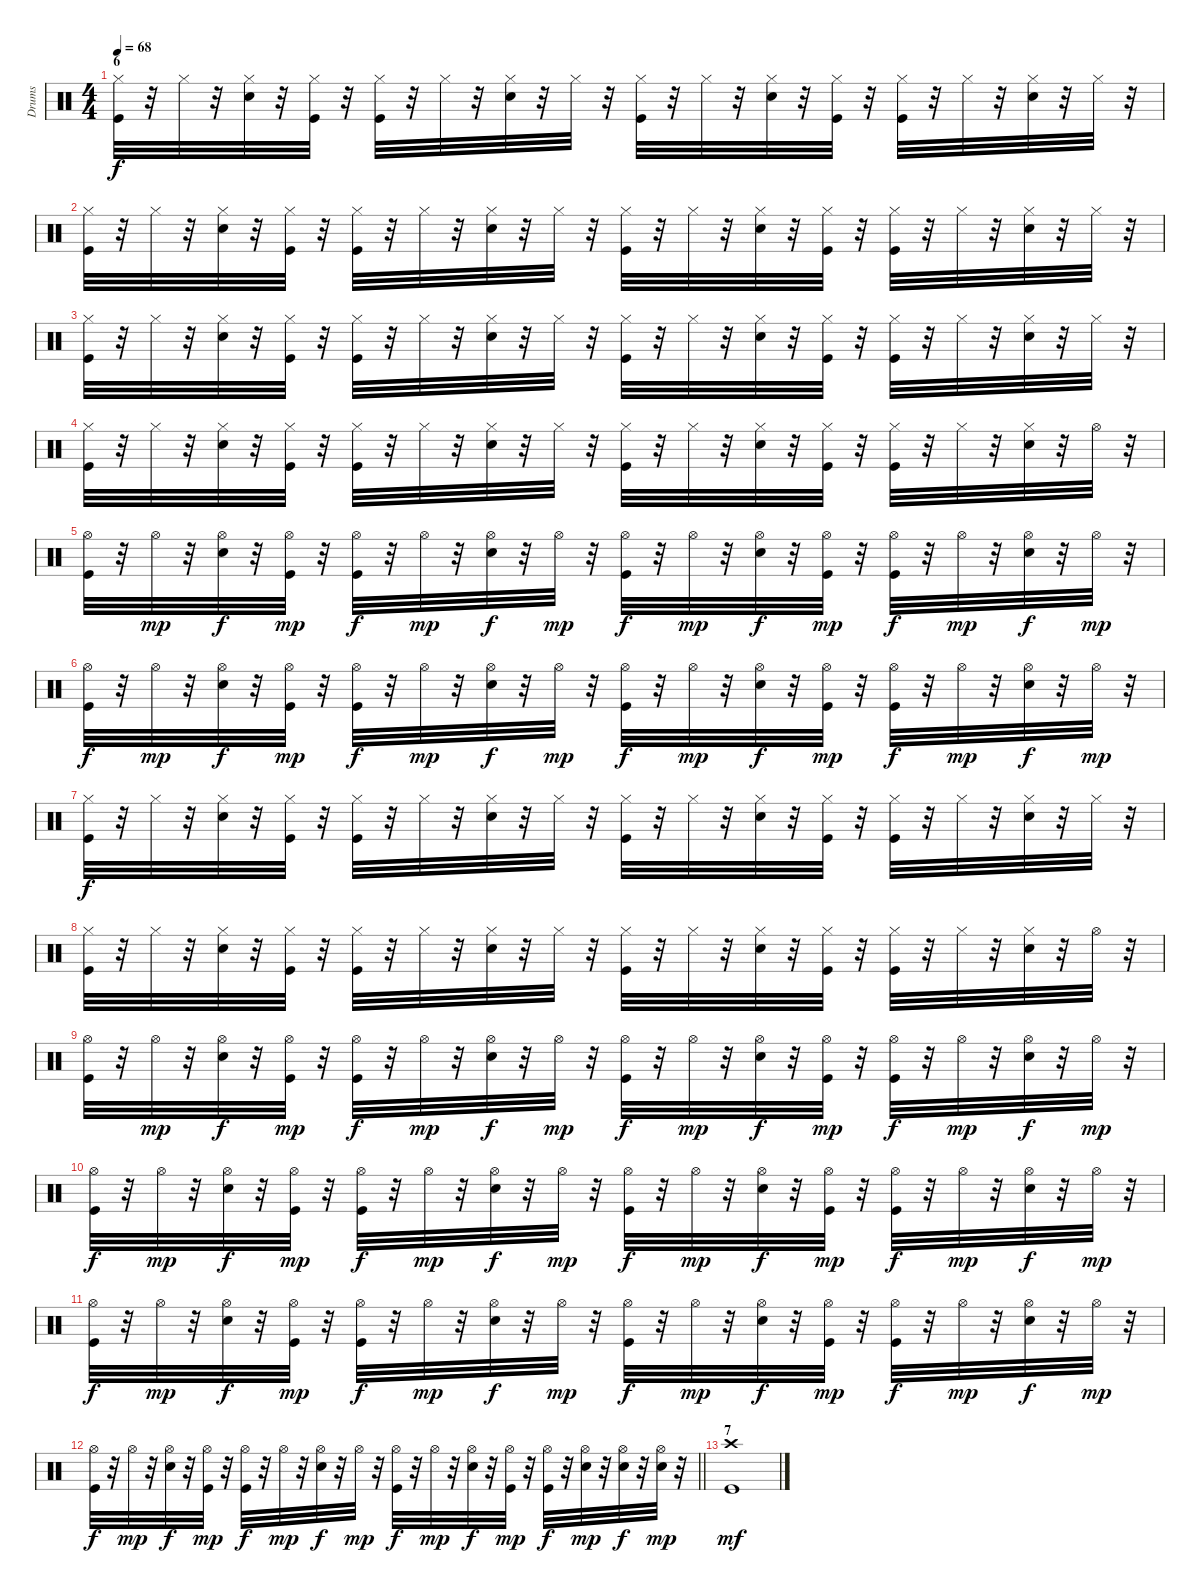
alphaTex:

\track ("Drums" "Drums") {instrument percussion}
\staff {score}
\articulation defaults
\ts (4 4)
\section ("" "6")
\tempo 68
\clef neutral
\ks c
("Hi-Hat (closed)" "Kick (hit)").32{dy f} r.32 "Hi-Hat (closed)".32 r.32 ("Hi-Hat (closed)" "Snare (hit) 2").32 r.32 ("Hi-Hat (closed)" "Kick (hit)").32 r.32 ("Hi-Hat (closed)" "Kick (hit)").32 r.32 "Hi-Hat (closed)".32 r.32 ("Hi-Hat (closed)" "Snare (hit) 2").32 r.32 "Hi-Hat (closed)".32 r.32 ("Hi-Hat (closed)" "Kick (hit)").32 r.32 "Hi-Hat (closed)".32 r.32 ("Hi-Hat (closed)" "Snare (hit) 2").32 r.32 ("Hi-Hat (closed)" "Kick (hit)").32 r.32 ("Hi-Hat (closed)" "Kick (hit)").32 r.32 "Hi-Hat (closed)".32 r.32 ("Hi-Hat (closed)" "Snare (hit) 2").32 r.32 "Hi-Hat (closed)".32 r.32 |
("Hi-Hat (closed)" "Kick (hit)").32 r.32 "Hi-Hat (closed)".32 r.32 ("Hi-Hat (closed)" "Snare (hit) 2").32 r.32 ("Hi-Hat (closed)" "Kick (hit)").32 r.32 ("Hi-Hat (closed)" "Kick (hit)").32 r.32 "Hi-Hat (closed)".32 r.32 ("Hi-Hat (closed)" "Snare (hit) 2").32 r.32 "Hi-Hat (closed)".32 r.32 ("Hi-Hat (closed)" "Kick (hit)").32 r.32 "Hi-Hat (closed)".32 r.32 ("Hi-Hat (closed)" "Snare (hit) 2").32 r.32 ("Hi-Hat (closed)" "Kick (hit)").32 r.32 ("Hi-Hat (closed)" "Kick (hit)").32 r.32 "Hi-Hat (closed)".32 r.32 ("Hi-Hat (closed)" "Snare (hit) 2").32 r.32 "Hi-Hat (closed)".32 r.32 |
("Hi-Hat (closed)" "Kick (hit)").32 r.32 "Hi-Hat (closed)".32 r.32 ("Hi-Hat (closed)" "Snare (hit) 2").32 r.32 ("Hi-Hat (closed)" "Kick (hit)").32 r.32 ("Hi-Hat (closed)" "Kick (hit)").32 r.32 "Hi-Hat (closed)".32 r.32 ("Hi-Hat (closed)" "Snare (hit) 2").32 r.32 "Hi-Hat (closed)".32 r.32 ("Hi-Hat (closed)" "Kick (hit)").32 r.32 "Hi-Hat (closed)".32 r.32 ("Hi-Hat (closed)" "Snare (hit) 2").32 r.32 ("Hi-Hat (closed)" "Kick (hit)").32 r.32 ("Hi-Hat (closed)" "Kick (hit)").32 r.32 "Hi-Hat (closed)".32 r.32 ("Hi-Hat (closed)" "Snare (hit) 2").32 r.32 "Hi-Hat (closed)".32 r.32 |
("Hi-Hat (closed)" "Kick (hit)").32 r.32 "Hi-Hat (closed)".32 r.32 ("Hi-Hat (closed)" "Snare (hit) 2").32 r.32 ("Hi-Hat (closed)" "Kick (hit)").32 r.32 ("Hi-Hat (closed)" "Kick (hit)").32 r.32 "Hi-Hat (closed)".32 r.32 ("Hi-Hat (closed)" "Snare (hit) 2").32 r.32 "Hi-Hat (closed)".32 r.32 ("Hi-Hat (closed)" "Kick (hit)").32 r.32 "Hi-Hat (closed)".32 r.32 ("Hi-Hat (closed)" "Snare (hit) 2").32 r.32 ("Hi-Hat (closed)" "Kick (hit)").32 r.32 ("Hi-Hat (closed)" "Kick (hit)").32 r.32 "Hi-Hat (closed)".32 r.32 ("Hi-Hat (closed)" "Snare (hit) 2").32 r.32 "Hi-Hat (open)".32 r.32 |
("Hi-Hat (open)" "Kick (hit)").32 r.32 "Hi-Hat (open)".32{dy mp} r.32 ("Hi-Hat (open)" "Snare (hit) 2").32{dy f} r.32 ("Hi-Hat (open)" "Kick (hit)").32{dy mp} r.32 ("Hi-Hat (open)" "Kick (hit)").32{dy f} r.32 "Hi-Hat (open)".32{dy mp} r.32 ("Hi-Hat (open)" "Snare (hit) 2").32{dy f} r.32 "Hi-Hat (open)".32{dy mp} r.32 ("Hi-Hat (open)" "Kick (hit)").32{dy f} r.32 "Hi-Hat (open)".32{dy mp} r.32 ("Hi-Hat (open)" "Snare (hit) 2").32{dy f} r.32 ("Hi-Hat (open)" "Kick (hit)").32{dy mp} r.32 ("Hi-Hat (open)" "Kick (hit)").32{dy f} r.32 "Hi-Hat (open)".32{dy mp} r.32 ("Hi-Hat (open)" "Snare (hit) 2").32{dy f} r.32 "Hi-Hat (open)".32{dy mp} r.32 |
("Hi-Hat (open)" "Kick (hit)").32{dy f} r.32 "Hi-Hat (open)".32{dy mp} r.32 ("Hi-Hat (open)" "Snare (hit) 2").32{dy f} r.32 ("Hi-Hat (open)" "Kick (hit)").32{dy mp} r.32 ("Hi-Hat (open)" "Kick (hit)").32{dy f} r.32 "Hi-Hat (open)".32{dy mp} r.32 ("Hi-Hat (open)" "Snare (hit) 2").32{dy f} r.32 "Hi-Hat (open)".32{dy mp} r.32 ("Hi-Hat (open)" "Kick (hit)").32{dy f} r.32 "Hi-Hat (open)".32{dy mp} r.32 ("Hi-Hat (open)" "Snare (hit) 2").32{dy f} r.32 ("Hi-Hat (open)" "Kick (hit)").32{dy mp} r.32 ("Hi-Hat (open)" "Kick (hit)").32{dy f} r.32 "Hi-Hat (open)".32{dy mp} r.32 ("Hi-Hat (open)" "Snare (hit) 2").32{dy f} r.32 "Hi-Hat (open)".32{dy mp} r.32 |
("Hi-Hat (closed)" "Kick (hit)").32{dy f} r.32 "Hi-Hat (closed)".32 r.32 ("Hi-Hat (closed)" "Snare (hit) 2").32 r.32 ("Hi-Hat (closed)" "Kick (hit)").32 r.32 ("Hi-Hat (closed)" "Kick (hit)").32 r.32 "Hi-Hat (closed)".32 r.32 ("Hi-Hat (closed)" "Snare (hit) 2").32 r.32 "Hi-Hat (closed)".32 r.32 ("Hi-Hat (closed)" "Kick (hit)").32 r.32 "Hi-Hat (closed)".32 r.32 ("Hi-Hat (closed)" "Snare (hit) 2").32 r.32 ("Hi-Hat (closed)" "Kick (hit)").32 r.32 ("Hi-Hat (closed)" "Kick (hit)").32 r.32 "Hi-Hat (closed)".32 r.32 ("Hi-Hat (closed)" "Snare (hit) 2").32 r.32 "Hi-Hat (closed)".32 r.32 |
("Hi-Hat (closed)" "Kick (hit)").32 r.32 "Hi-Hat (closed)".32 r.32 ("Hi-Hat (closed)" "Snare (hit) 2").32 r.32 ("Hi-Hat (closed)" "Kick (hit)").32 r.32 ("Hi-Hat (closed)" "Kick (hit)").32 r.32 "Hi-Hat (closed)".32 r.32 ("Hi-Hat (closed)" "Snare (hit) 2").32 r.32 "Hi-Hat (closed)".32 r.32 ("Hi-Hat (closed)" "Kick (hit)").32 r.32 "Hi-Hat (closed)".32 r.32 ("Hi-Hat (closed)" "Snare (hit) 2").32 r.32 ("Hi-Hat (closed)" "Kick (hit)").32 r.32 ("Hi-Hat (closed)" "Kick (hit)").32 r.32 "Hi-Hat (closed)".32 r.32 ("Hi-Hat (closed)" "Snare (hit) 2").32 r.32 "Hi-Hat (open)".32 r.32 |
("Hi-Hat (open)" "Kick (hit)").32 r.32 "Hi-Hat (open)".32{dy mp} r.32 ("Hi-Hat (open)" "Snare (hit) 2").32{dy f} r.32 ("Hi-Hat (open)" "Kick (hit)").32{dy mp} r.32 ("Hi-Hat (open)" "Kick (hit)").32{dy f} r.32 "Hi-Hat (open)".32{dy mp} r.32 ("Hi-Hat (open)" "Snare (hit) 2").32{dy f} r.32 "Hi-Hat (open)".32{dy mp} r.32 ("Hi-Hat (open)" "Kick (hit)").32{dy f} r.32 "Hi-Hat (open)".32{dy mp} r.32 ("Hi-Hat (open)" "Snare (hit) 2").32{dy f} r.32 ("Hi-Hat (open)" "Kick (hit)").32{dy mp} r.32 ("Hi-Hat (open)" "Kick (hit)").32{dy f} r.32 "Hi-Hat (open)".32{dy mp} r.32 ("Hi-Hat (open)" "Snare (hit) 2").32{dy f} r.32 "Hi-Hat (open)".32{dy mp} r.32 |
("Hi-Hat (open)" "Kick (hit)").32{dy f} r.32 "Hi-Hat (open)".32{dy mp} r.32 ("Hi-Hat (open)" "Snare (hit) 2").32{dy f} r.32 ("Hi-Hat (open)" "Kick (hit)").32{dy mp} r.32 ("Hi-Hat (open)" "Kick (hit)").32{dy f} r.32 "Hi-Hat (open)".32{dy mp} r.32 ("Hi-Hat (open)" "Snare (hit) 2").32{dy f} r.32 "Hi-Hat (open)".32{dy mp} r.32 ("Hi-Hat (open)" "Kick (hit)").32{dy f} r.32 "Hi-Hat (open)".32{dy mp} r.32 ("Hi-Hat (open)" "Snare (hit) 2").32{dy f} r.32 ("Hi-Hat (open)" "Kick (hit)").32{dy mp} r.32 ("Hi-Hat (open)" "Kick (hit)").32{dy f} r.32 "Hi-Hat (open)".32{dy mp} r.32 ("Hi-Hat (open)" "Snare (hit) 2").32{dy f} r.32 "Hi-Hat (open)".32{dy mp} r.32 |
("Hi-Hat (open)" "Kick (hit)").32{dy f} r.32 "Hi-Hat (open)".32{dy mp} r.32 ("Hi-Hat (open)" "Snare (hit) 2").32{dy f} r.32 ("Hi-Hat (open)" "Kick (hit)").32{dy mp} r.32 ("Hi-Hat (open)" "Kick (hit)").32{dy f} r.32 "Hi-Hat (open)".32{dy mp} r.32 ("Hi-Hat (open)" "Snare (hit) 2").32{dy f} r.32 "Hi-Hat (open)".32{dy mp} r.32 ("Hi-Hat (open)" "Kick (hit)").32{dy f} r.32 "Hi-Hat (open)".32{dy mp} r.32 ("Hi-Hat (open)" "Snare (hit) 2").32{dy f} r.32 ("Hi-Hat (open)" "Kick (hit)").32{dy mp} r.32 ("Hi-Hat (open)" "Kick (hit)").32{dy f} r.32 "Hi-Hat (open)".32{dy mp} r.32 ("Hi-Hat (open)" "Snare (hit) 2").32{dy f} r.32 "Hi-Hat (open)".32{dy mp} r.32 |
\barLineRight lightlight
("Hi-Hat (open)" "Kick (hit)").32{dy f} r.32 "Hi-Hat (open)".32{dy mp} r.32 ("Hi-Hat (open)" "Snare (hit) 2").32{dy f} r.32 ("Hi-Hat (open)" "Kick (hit)").32{dy mp} r.32 ("Hi-Hat (open)" "Kick (hit)").32{dy f} r.32 "Hi-Hat (open)".32{dy mp} r.32 ("Hi-Hat (open)" "Snare (hit) 2").32{dy f} r.32 "Hi-Hat (open)".32{dy mp} r.32 ("Hi-Hat (open)" "Kick (hit)").32{dy f} r.32 "Hi-Hat (open)".32{dy mp} r.32 ("Hi-Hat (open)" "Snare (hit) 2").32{dy f} r.32 ("Hi-Hat (open)" "Kick (hit)").32{dy mp} r.32 ("Hi-Hat (open)" "Kick (hit)").32{dy f} r.32 ("Hi-Hat (open)" "Snare (hit) 2").32{dy mp} r.32 ("Hi-Hat (open)" "Snare (hit) 2").32{dy f} r.32 ("Hi-Hat (open)" "Snare (hit) 2").32{dy mp} r.32 |
\section ("" "7")
("Crash high (hit)" "Kick (hit)").1{dy mf}
